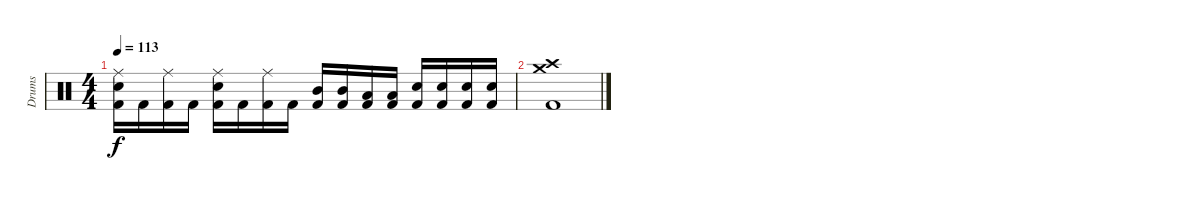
\track ("Drums" "Drums") {instrument percussion}
\staff {score}
\articulation defaults
\ts (4 4)
\tempo 113
\clef neutral
\ks c
("Kick (hit) 2" "Snare (hit) 2" "Ride (middle)").16{dy f} "Kick (hit) 2".16 ("Kick (hit) 2" "Ride (middle)").16 "Kick (hit) 2".16 ("Kick (hit) 2" "Snare (hit) 2" "Ride (middle)").16 "Kick (hit) 2".16 ("Kick (hit) 2" "Ride (middle)").16 "Kick (hit) 2".16 ("Kick (hit) 2" "Mid Tom (hit)").16 ("Kick (hit) 2" "Mid Tom (hit)").16 ("Kick (hit) 2" "Low Tom (hit)").16 ("Kick (hit) 2" "Low Tom (hit)").16 ("Kick (hit) 2" "Snare (hit) 2").16 ("Kick (hit) 2" "Snare (hit) 2").16 ("Kick (hit) 2" "Snare (hit) 2").16 ("Kick (hit) 2" "Snare (hit) 2").16 |
("Kick (hit) 2" "Crash high (hit)" "Crash medium (hit)").1
